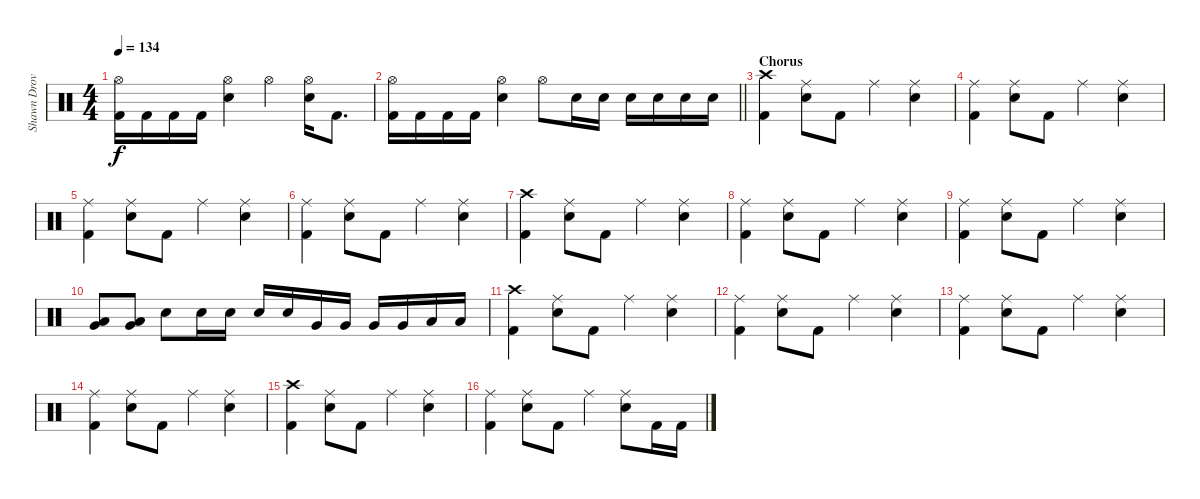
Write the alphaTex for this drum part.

\track ("Shawn Drover" "Shawn Drov") {instrument percussion}
\staff {score}
\articulation defaults
\ts (4 4)
\tempo 134
\clef neutral
\ks c
("Hi-Hat (open)" "Kick (hit) 2").16{dy f} "Kick (hit) 2".16 "Kick (hit) 2".16 "Kick (hit) 2".16 ("Hi-Hat (open)" "Snare (hit) 2").4 "Hi-Hat (open)".4 ("Hi-Hat (open)" "Snare (hit) 2").16 "Kick (hit) 2".8{d} |
\barLineRight lightlight
("Hi-Hat (open)" "Kick (hit) 2").16 "Kick (hit) 2".16 "Kick (hit) 2".16 "Kick (hit) 2".16 ("Hi-Hat (open)" "Snare (hit) 2").4 "Hi-Hat (open)".8 "Snare (hit) 2".16 "Snare (hit) 2".16 "Snare (hit) 2".16 "Snare (hit) 2".16 "Snare (hit) 2".16 "Snare (hit) 2".16 |
\section ("" "Chorus")
("Crash high (hit)" "Kick (hit) 2").4 ("Ride (middle)" "Snare (hit) 2").8 "Kick (hit) 2".8 "Ride (middle)".4 ("Ride (middle)" "Snare (hit) 2").4 |
("Ride (middle)" "Kick (hit) 2").4 ("Ride (middle)" "Snare (hit) 2").8 "Kick (hit) 2".8 "Ride (middle)".4 ("Ride (middle)" "Snare (hit) 2").4 |
("Ride (middle)" "Kick (hit) 2").4 ("Ride (middle)" "Snare (hit) 2").8 "Kick (hit) 2".8 "Ride (middle)".4 ("Ride (middle)" "Snare (hit) 2").4 |
("Ride (middle)" "Kick (hit) 2").4 ("Ride (middle)" "Snare (hit) 2").8 "Kick (hit) 2".8 "Ride (middle)".4 ("Ride (middle)" "Snare (hit) 2").4 |
("Crash high (hit)" "Kick (hit) 2").4 ("Ride (middle)" "Snare (hit) 2").8 "Kick (hit) 2".8 "Ride (middle)".4 ("Ride (middle)" "Snare (hit) 2").4 |
("Ride (middle)" "Kick (hit) 2").4 ("Ride (middle)" "Snare (hit) 2").8 "Kick (hit) 2".8 "Ride (middle)".4 ("Ride (middle)" "Snare (hit) 2").4 |
("Ride (middle)" "Kick (hit) 2").4 ("Ride (middle)" "Snare (hit) 2").8 "Kick (hit) 2".8 "Ride (middle)".4 ("Ride (middle)" "Snare (hit) 2").4 |
("Low Tom (hit)" "Very Low Tom (hit)").8 ("Low Tom (hit)" "Very Low Tom (hit)").8 "Snare (hit) 2".8 "Snare (hit) 2".16 "Snare (hit) 2".16 "Snare (hit) 2".16 "Snare (hit) 2".16 "Very Low Tom (hit)".16 "Very Low Tom (hit)".16 "Very Low Tom (hit)".16 "Very Low Tom (hit)".16 "Low Floor Tom (hit)".16 "Low Floor Tom (hit)".16 |
("Crash high (hit)" "Kick (hit) 2").4 ("Ride (middle)" "Snare (hit) 2").8 "Kick (hit) 2".8 "Ride (middle)".4 ("Ride (middle)" "Snare (hit) 2").4 |
("Ride (middle)" "Kick (hit) 2").4 ("Ride (middle)" "Snare (hit) 2").8 "Kick (hit) 2".8 "Ride (middle)".4 ("Ride (middle)" "Snare (hit) 2").4 |
("Ride (middle)" "Kick (hit) 2").4 ("Ride (middle)" "Snare (hit) 2").8 "Kick (hit) 2".8 "Ride (middle)".4 ("Ride (middle)" "Snare (hit) 2").4 |
("Ride (middle)" "Kick (hit) 2").4 ("Ride (middle)" "Snare (hit) 2").8 "Kick (hit) 2".8 "Ride (middle)".4 ("Ride (middle)" "Snare (hit) 2").4 |
("Crash high (hit)" "Kick (hit) 2").4 ("Ride (middle)" "Snare (hit) 2").8 "Kick (hit) 2".8 "Ride (middle)".4 ("Ride (middle)" "Snare (hit) 2").4 |
("Ride (middle)" "Kick (hit) 2").4 ("Ride (middle)" "Snare (hit) 2").8 "Kick (hit) 2".8 "Ride (middle)".4 ("Ride (middle)" "Snare (hit) 2").8 "Kick (hit) 2".16 "Kick (hit) 2".16
